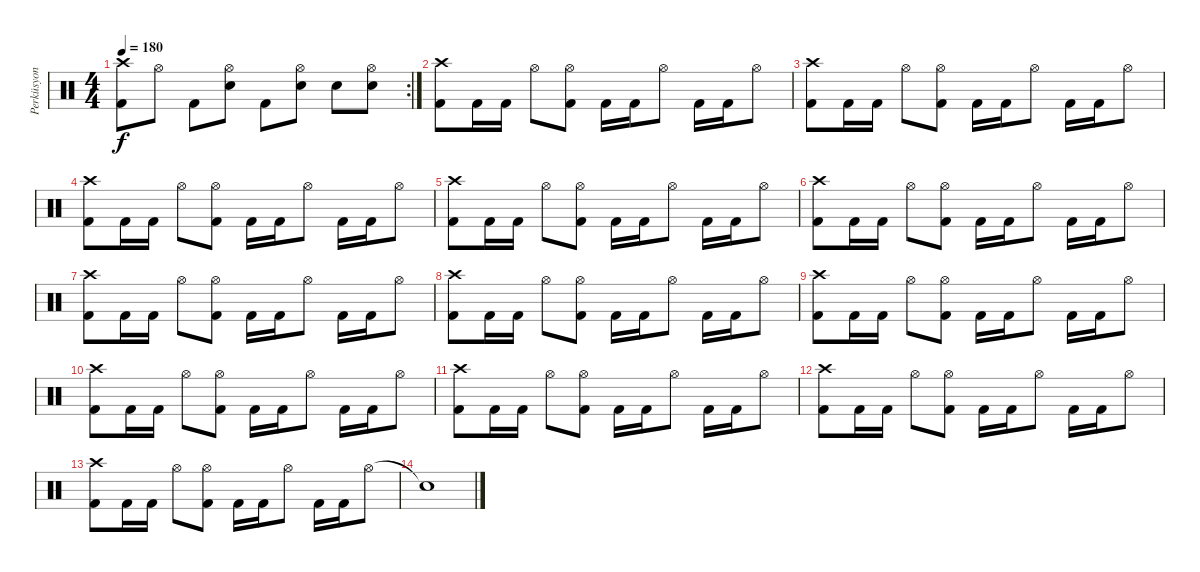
\track ("Perküsyon" "Perküsyon") {instrument percussion}
\staff {score}
\articulation defaults
\rc 2
\ts (4 4)
\tempo 180
\clef neutral
\ks c
("Kick (hit) 2" "Crash high (hit)").8{dy f} "Hi-Hat (open)".8 "Kick (hit) 2".8 ("Hi-Hat (open)" "Electric Snare (hit)").8 "Kick (hit) 2".8 ("Hi-Hat (open)" "Electric Snare (hit)").8 "Snare (hit) 2".8 ("Electric Snare (hit)" "Hi-Hat (open)").8 |
("Kick (hit) 2" "Crash high (hit)").8 "Kick (hit) 2".16 "Kick (hit) 2".16 "Hi-Hat (open)".8 ("Kick (hit) 2" "Hi-Hat (open)").8 "Kick (hit) 2".16 "Kick (hit) 2".16 "Hi-Hat (open)".8 "Kick (hit) 2".16 "Kick (hit) 2".16 "Hi-Hat (open)".8 |
("Kick (hit) 2" "Crash high (hit)").8 "Kick (hit) 2".16 "Kick (hit) 2".16 "Hi-Hat (open)".8 ("Kick (hit) 2" "Hi-Hat (open)").8 "Kick (hit) 2".16 "Kick (hit) 2".16 "Hi-Hat (open)".8 "Kick (hit) 2".16 "Kick (hit) 2".16 "Hi-Hat (open)".8 |
("Kick (hit) 2" "Crash high (hit)").8 "Kick (hit) 2".16 "Kick (hit) 2".16 "Hi-Hat (open)".8 ("Kick (hit) 2" "Hi-Hat (open)").8 "Kick (hit) 2".16 "Kick (hit) 2".16 "Hi-Hat (open)".8 "Kick (hit) 2".16 "Kick (hit) 2".16 "Hi-Hat (open)".8 |
("Kick (hit) 2" "Crash high (hit)").8 "Kick (hit) 2".16 "Kick (hit) 2".16 "Hi-Hat (open)".8 ("Kick (hit) 2" "Hi-Hat (open)").8 "Kick (hit) 2".16 "Kick (hit) 2".16 "Hi-Hat (open)".8 "Kick (hit) 2".16 "Kick (hit) 2".16 "Hi-Hat (open)".8 |
("Kick (hit) 2" "Crash high (hit)").8 "Kick (hit) 2".16 "Kick (hit) 2".16 "Hi-Hat (open)".8 ("Kick (hit) 2" "Hi-Hat (open)").8 "Kick (hit) 2".16 "Kick (hit) 2".16 "Hi-Hat (open)".8 "Kick (hit) 2".16 "Kick (hit) 2".16 "Hi-Hat (open)".8 |
("Kick (hit) 2" "Crash high (hit)").8 "Kick (hit) 2".16 "Kick (hit) 2".16 "Hi-Hat (open)".8 ("Kick (hit) 2" "Hi-Hat (open)").8 "Kick (hit) 2".16 "Kick (hit) 2".16 "Hi-Hat (open)".8 "Kick (hit) 2".16 "Kick (hit) 2".16 "Hi-Hat (open)".8 |
("Kick (hit) 2" "Crash high (hit)").8 "Kick (hit) 2".16 "Kick (hit) 2".16 "Hi-Hat (open)".8 ("Kick (hit) 2" "Hi-Hat (open)").8 "Kick (hit) 2".16 "Kick (hit) 2".16 "Hi-Hat (open)".8 "Kick (hit) 2".16 "Kick (hit) 2".16 "Hi-Hat (open)".8 |
("Kick (hit) 2" "Crash high (hit)").8 "Kick (hit) 2".16 "Kick (hit) 2".16 "Hi-Hat (open)".8 ("Kick (hit) 2" "Hi-Hat (open)").8 "Kick (hit) 2".16 "Kick (hit) 2".16 "Hi-Hat (open)".8 "Kick (hit) 2".16 "Kick (hit) 2".16 "Hi-Hat (open)".8 |
("Kick (hit) 2" "Crash high (hit)").8 "Kick (hit) 2".16 "Kick (hit) 2".16 "Hi-Hat (open)".8 ("Kick (hit) 2" "Hi-Hat (open)").8 "Kick (hit) 2".16 "Kick (hit) 2".16 "Hi-Hat (open)".8 "Kick (hit) 2".16 "Kick (hit) 2".16 "Hi-Hat (open)".8 |
("Kick (hit) 2" "Crash high (hit)").8 "Kick (hit) 2".16 "Kick (hit) 2".16 "Hi-Hat (open)".8 ("Kick (hit) 2" "Hi-Hat (open)").8 "Kick (hit) 2".16 "Kick (hit) 2".16 "Hi-Hat (open)".8 "Kick (hit) 2".16 "Kick (hit) 2".16 "Hi-Hat (open)".8 |
("Kick (hit) 2" "Crash high (hit)").8 "Kick (hit) 2".16 "Kick (hit) 2".16 "Hi-Hat (open)".8 ("Kick (hit) 2" "Hi-Hat (open)").8 "Kick (hit) 2".16 "Kick (hit) 2".16 "Hi-Hat (open)".8 "Kick (hit) 2".16 "Kick (hit) 2".16 "Hi-Hat (open)".8 |
("Kick (hit) 2" "Crash high (hit)").8 "Kick (hit) 2".16 "Kick (hit) 2".16 "Hi-Hat (open)".8 ("Kick (hit) 2" "Hi-Hat (open)").8 "Kick (hit) 2".16 "Kick (hit) 2".16 "Hi-Hat (open)".8 "Kick (hit) 2".16 "Kick (hit) 2".16 "Hi-Hat (open)".8 |
"Snare (hit)"{t}.1
